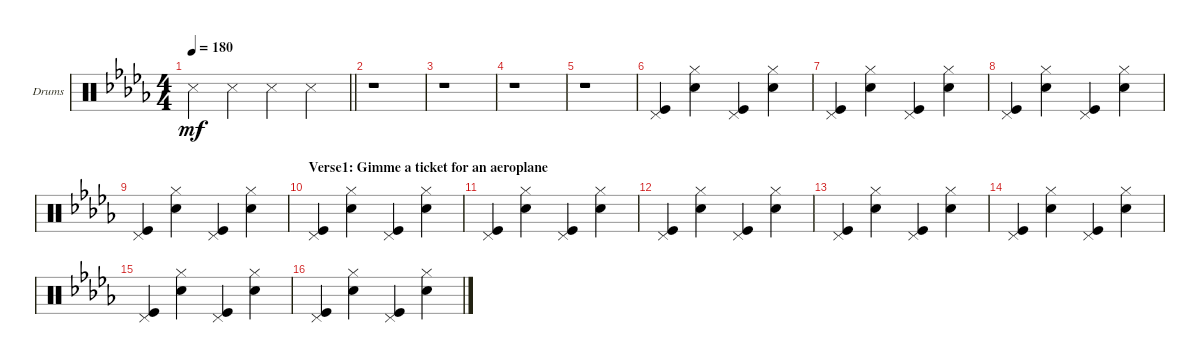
\bracketExtendMode groupsimilarinstruments
\firstSystemTrackNameOrientation horizontal
\otherSystemsTrackNameOrientation horizontal
\track ("Drums" "Drums") {instrument percussion}
\staff {score}
\articulation defaults
\ts (4 4)
\tempo 180
\clef neutral
\barLineRight lightlight
\ks bbminor "Snare (side stick) 3".4{dy mf} "Snare (side stick) 3".4 "Snare (side stick) 3".4 "Snare (side stick) 3".4
|
r.1 |
r.1 |
r.1 |
r.1 |
("Kick (hit)" "Pedal Hi-Hat (hit)").4 ("Snare (hit) 2" "Hi-Hat (closed)").4 ("Kick (hit)" "Pedal Hi-Hat (hit)").4 ("Snare (hit) 2" "Hi-Hat (closed)").4 |
("Kick (hit)" "Pedal Hi-Hat (hit)").4 ("Snare (hit) 2" "Hi-Hat (closed)").4 ("Kick (hit)" "Pedal Hi-Hat (hit)").4 ("Snare (hit) 2" "Hi-Hat (closed)").4 |
("Kick (hit)" "Pedal Hi-Hat (hit)").4 ("Snare (hit) 2" "Hi-Hat (closed)").4 ("Kick (hit)" "Pedal Hi-Hat (hit)").4 ("Snare (hit) 2" "Hi-Hat (closed)").4 |
("Kick (hit)" "Pedal Hi-Hat (hit)").4 ("Snare (hit) 2" "Hi-Hat (closed)").4 ("Kick (hit)" "Pedal Hi-Hat (hit)").4 ("Snare (hit) 2" "Hi-Hat (closed)").4 |
\section ("" "Verse1: Gimme a ticket for an aeroplane")
("Kick (hit)" "Pedal Hi-Hat (hit)").4 ("Snare (hit) 2" "Hi-Hat (closed)").4 ("Kick (hit)" "Pedal Hi-Hat (hit)").4 ("Snare (hit) 2" "Hi-Hat (closed)").4 |
("Kick (hit)" "Pedal Hi-Hat (hit)").4 ("Snare (hit) 2" "Hi-Hat (closed)").4 ("Kick (hit)" "Pedal Hi-Hat (hit)").4 ("Snare (hit) 2" "Hi-Hat (closed)").4 |
("Kick (hit)" "Pedal Hi-Hat (hit)").4 ("Snare (hit) 2" "Hi-Hat (closed)").4 ("Kick (hit)" "Pedal Hi-Hat (hit)").4 ("Snare (hit) 2" "Hi-Hat (closed)").4 |
("Kick (hit)" "Pedal Hi-Hat (hit)").4 ("Snare (hit) 2" "Hi-Hat (closed)").4 ("Kick (hit)" "Pedal Hi-Hat (hit)").4 ("Snare (hit) 2" "Hi-Hat (closed)").4 |
("Kick (hit)" "Pedal Hi-Hat (hit)").4 ("Snare (hit) 2" "Hi-Hat (closed)").4 ("Kick (hit)" "Pedal Hi-Hat (hit)").4 ("Snare (hit) 2" "Hi-Hat (closed)").4 |
("Kick (hit)" "Pedal Hi-Hat (hit)").4 ("Snare (hit) 2" "Hi-Hat (closed)").4 ("Kick (hit)" "Pedal Hi-Hat (hit)").4 ("Snare (hit) 2" "Hi-Hat (closed)").4 |
("Kick (hit)" "Pedal Hi-Hat (hit)").4 ("Snare (hit) 2" "Hi-Hat (closed)").4 ("Kick (hit)" "Pedal Hi-Hat (hit)").4 ("Snare (hit) 2" "Hi-Hat (closed)").4
